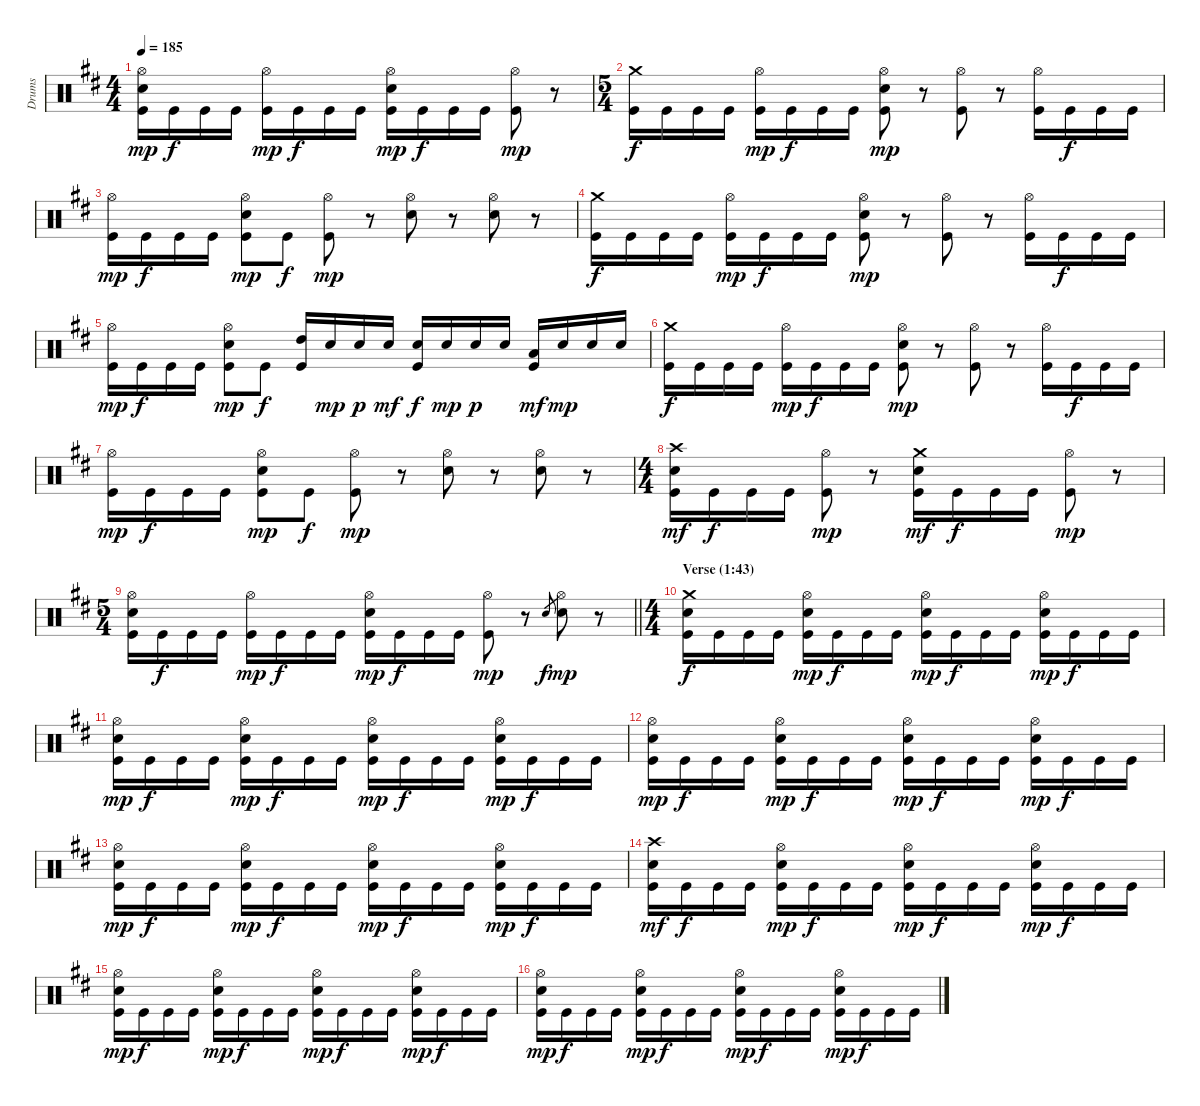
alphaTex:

\track ("Drums" "Drums") {instrument percussion}
\staff {score}
\articulation defaults
\ts (4 4)
\tempo 185
\clef neutral
\ks bminor
("Hi-Hat (open)" "Snare (hit) 2" "Kick (hit)").16{dy mp} "Kick (hit)".16{dy f} "Kick (hit)".16 "Kick (hit)".16 ("Hi-Hat (open)" "Kick (hit)").16{dy mp} "Kick (hit)".16{dy f} "Kick (hit)".16 "Kick (hit)".16 ("Hi-Hat (open)" "Snare (hit) 2" "Kick (hit)").16{dy mp} "Kick (hit)".16{dy f} "Kick (hit)".16 "Kick (hit)".16 ("Hi-Hat (open)" "Kick (hit)").8{dy mp} r.8 |
\ts (5 4)
("Crash medium (hit)" "Kick (hit)").16{dy f} "Kick (hit)".16 "Kick (hit)".16 "Kick (hit)".16 ("Hi-Hat (open)" "Kick (hit)").16{dy mp} "Kick (hit)".16{dy f} "Kick (hit)".16 "Kick (hit)".16 ("Hi-Hat (open)" "Snare (hit) 2" "Kick (hit)").8{dy mp} r.8 ("Hi-Hat (open)" "Kick (hit)").8 r.8 ("Hi-Hat (open)" "Kick (hit)").16 "Kick (hit)".16{dy f} "Kick (hit)".16 "Kick (hit)".16 |
("Hi-Hat (open)" "Kick (hit)").16{dy mp} "Kick (hit)".16{dy f} "Kick (hit)".16 "Kick (hit)".16 ("Hi-Hat (open)" "Snare (hit) 2" "Kick (hit)").8{dy mp} "Kick (hit)".8{dy f} ("Hi-Hat (open)" "Kick (hit)").8{dy mp} r.8 ("Hi-Hat (open)" "Snare (hit) 2").8 r.8 ("Hi-Hat (open)" "Snare (hit) 2").8 r.8 |
("Crash medium (hit)" "Kick (hit)").16{dy f} "Kick (hit)".16 "Kick (hit)".16 "Kick (hit)".16 ("Hi-Hat (open)" "Kick (hit)").16{dy mp} "Kick (hit)".16{dy f} "Kick (hit)".16 "Kick (hit)".16 ("Hi-Hat (open)" "Snare (hit) 2" "Kick (hit)").8{dy mp} r.8 ("Hi-Hat (open)" "Kick (hit)").8 r.8 ("Hi-Hat (open)" "Kick (hit)").16 "Kick (hit)".16{dy f} "Kick (hit)".16 "Kick (hit)".16 |
("Hi-Hat (open)" "Kick (hit)").16{dy mp} "Kick (hit)".16{dy f} "Kick (hit)".16 "Kick (hit)".16 ("Hi-Hat (open)" "Snare (hit) 2" "Kick (hit)").8{dy mp} "Kick (hit)".8{dy f} ("High Tom (hit)" "Kick (hit)").16 "Snare (hit) 2".16{dy mp} "Snare (hit) 2".16{dy p} "Snare (hit) 2".16{dy mf} ("Snare (hit) 2" "Kick (hit)").16{dy f} "Snare (hit) 2".16{dy mp} "Snare (hit) 2".16{dy p} "Snare (hit) 2".16 ("Low Tom (hit)" "Kick (hit)").16{dy mf} "Snare (hit) 2".16{dy mp} "Snare (hit) 2".16 "Snare (hit) 2".16 |
("Crash medium (hit)" "Kick (hit)").16{dy f} "Kick (hit)".16 "Kick (hit)".16 "Kick (hit)".16 ("Hi-Hat (open)" "Kick (hit)").16{dy mp} "Kick (hit)".16{dy f} "Kick (hit)".16 "Kick (hit)".16 ("Hi-Hat (open)" "Snare (hit) 2" "Kick (hit)").8{dy mp} r.8 ("Hi-Hat (open)" "Kick (hit)").8 r.8 ("Hi-Hat (open)" "Kick (hit)").16 "Kick (hit)".16{dy f} "Kick (hit)".16 "Kick (hit)".16 |
("Hi-Hat (open)" "Kick (hit)").16{dy mp} "Kick (hit)".16{dy f} "Kick (hit)".16 "Kick (hit)".16 ("Hi-Hat (open)" "Snare (hit) 2" "Kick (hit)").8{dy mp} "Kick (hit)".8{dy f} ("Hi-Hat (open)" "Kick (hit)").8{dy mp} r.8 ("Hi-Hat (open)" "Snare (hit) 2").8 r.8 ("Hi-Hat (open)" "Snare (hit) 2").8 r.8 |
\ts (4 4)
("Crash high (hit)" "Snare (hit) 2" "Kick (hit)").16{dy mf} "Kick (hit)".16{dy f} "Kick (hit)".16 "Kick (hit)".16 ("Hi-Hat (open)" "Kick (hit)").8{dy mp} r.8 ("Crash medium (hit)" "Snare (hit) 2" "Kick (hit)").16{dy mf} "Kick (hit)".16{dy f} "Kick (hit)".16 "Kick (hit)".16 ("Hi-Hat (open)" "Kick (hit)").8{dy mp} r.8 |
\ts (5 4)
\barLineRight lightlight
("Hi-Hat (open)" "Snare (hit) 2" "Kick (hit)").16 "Kick (hit)".16{dy f} "Kick (hit)".16 "Kick (hit)".16 ("Hi-Hat (open)" "Kick (hit)").16{dy mp} "Kick (hit)".16{dy f} "Kick (hit)".16 "Kick (hit)".16 ("Hi-Hat (open)" "Snare (hit) 2" "Kick (hit)").16{dy mp} "Kick (hit)".16{dy f} "Kick (hit)".16 "Kick (hit)".16 ("Hi-Hat (open)" "Kick (hit)").8{dy mp} r.8 "Snare (hit) 2".8{gr dy f} ("Hi-Hat (open)" "Snare (hit) 2").8{dy mp} r.8 |
\ts (4 4)
\section ("" "Verse (1:43)")
("Crash medium (hit)" "Snare (hit) 2" "Kick (hit)").16{dy f} "Kick (hit)".16 "Kick (hit)".16 "Kick (hit)".16 ("Hi-Hat (open)" "Snare (hit) 2" "Kick (hit)").16{dy mp} "Kick (hit)".16{dy f} "Kick (hit)".16 "Kick (hit)".16 ("Hi-Hat (open)" "Snare (hit) 2" "Kick (hit)").16{dy mp} "Kick (hit)".16{dy f} "Kick (hit)".16 "Kick (hit)".16 ("Hi-Hat (open)" "Snare (hit) 2" "Kick (hit)").16{dy mp} "Kick (hit)".16{dy f} "Kick (hit)".16 "Kick (hit)".16 |
("Hi-Hat (open)" "Snare (hit) 2" "Kick (hit)").16{dy mp} "Kick (hit)".16{dy f} "Kick (hit)".16 "Kick (hit)".16 ("Hi-Hat (open)" "Snare (hit) 2" "Kick (hit)").16{dy mp} "Kick (hit)".16{dy f} "Kick (hit)".16 "Kick (hit)".16 ("Hi-Hat (open)" "Snare (hit) 2" "Kick (hit)").16{dy mp} "Kick (hit)".16{dy f} "Kick (hit)".16 "Kick (hit)".16 ("Hi-Hat (open)" "Snare (hit) 2" "Kick (hit)").16{dy mp} "Kick (hit)".16{dy f} "Kick (hit)".16 "Kick (hit)".16 |
("Hi-Hat (open)" "Snare (hit) 2" "Kick (hit)").16{dy mp} "Kick (hit)".16{dy f} "Kick (hit)".16 "Kick (hit)".16 ("Hi-Hat (open)" "Snare (hit) 2" "Kick (hit)").16{dy mp} "Kick (hit)".16{dy f} "Kick (hit)".16 "Kick (hit)".16 ("Hi-Hat (open)" "Snare (hit) 2" "Kick (hit)").16{dy mp} "Kick (hit)".16{dy f} "Kick (hit)".16 "Kick (hit)".16 ("Hi-Hat (open)" "Snare (hit) 2" "Kick (hit)").16{dy mp} "Kick (hit)".16{dy f} "Kick (hit)".16 "Kick (hit)".16 |
("Hi-Hat (open)" "Snare (hit) 2" "Kick (hit)").16{dy mp} "Kick (hit)".16{dy f} "Kick (hit)".16 "Kick (hit)".16 ("Hi-Hat (open)" "Snare (hit) 2" "Kick (hit)").16{dy mp} "Kick (hit)".16{dy f} "Kick (hit)".16 "Kick (hit)".16 ("Hi-Hat (open)" "Snare (hit) 2" "Kick (hit)").16{dy mp} "Kick (hit)".16{dy f} "Kick (hit)".16 "Kick (hit)".16 ("Hi-Hat (open)" "Snare (hit) 2" "Kick (hit)").16{dy mp} "Kick (hit)".16{dy f} "Kick (hit)".16 "Kick (hit)".16 |
("Crash high (hit)" "Snare (hit) 2" "Kick (hit)").16{dy mf} "Kick (hit)".16{dy f} "Kick (hit)".16 "Kick (hit)".16 ("Hi-Hat (open)" "Snare (hit) 2" "Kick (hit)").16{dy mp} "Kick (hit)".16{dy f} "Kick (hit)".16 "Kick (hit)".16 ("Hi-Hat (open)" "Snare (hit) 2" "Kick (hit)").16{dy mp} "Kick (hit)".16{dy f} "Kick (hit)".16 "Kick (hit)".16 ("Hi-Hat (open)" "Snare (hit) 2" "Kick (hit)").16{dy mp} "Kick (hit)".16{dy f} "Kick (hit)".16 "Kick (hit)".16 |
("Hi-Hat (open)" "Snare (hit) 2" "Kick (hit)").16{dy mp} "Kick (hit)".16{dy f} "Kick (hit)".16 "Kick (hit)".16 ("Hi-Hat (open)" "Snare (hit) 2" "Kick (hit)").16{dy mp} "Kick (hit)".16{dy f} "Kick (hit)".16 "Kick (hit)".16 ("Hi-Hat (open)" "Snare (hit) 2" "Kick (hit)").16{dy mp} "Kick (hit)".16{dy f} "Kick (hit)".16 "Kick (hit)".16 ("Hi-Hat (open)" "Snare (hit) 2" "Kick (hit)").16{dy mp} "Kick (hit)".16{dy f} "Kick (hit)".16 "Kick (hit)".16 |
("Hi-Hat (open)" "Snare (hit) 2" "Kick (hit)").16{dy mp} "Kick (hit)".16{dy f} "Kick (hit)".16 "Kick (hit)".16 ("Hi-Hat (open)" "Snare (hit) 2" "Kick (hit)").16{dy mp} "Kick (hit)".16{dy f} "Kick (hit)".16 "Kick (hit)".16 ("Hi-Hat (open)" "Snare (hit) 2" "Kick (hit)").16{dy mp} "Kick (hit)".16{dy f} "Kick (hit)".16 "Kick (hit)".16 ("Hi-Hat (open)" "Snare (hit) 2" "Kick (hit)").16{dy mp} "Kick (hit)".16{dy f} "Kick (hit)".16 "Kick (hit)".16
